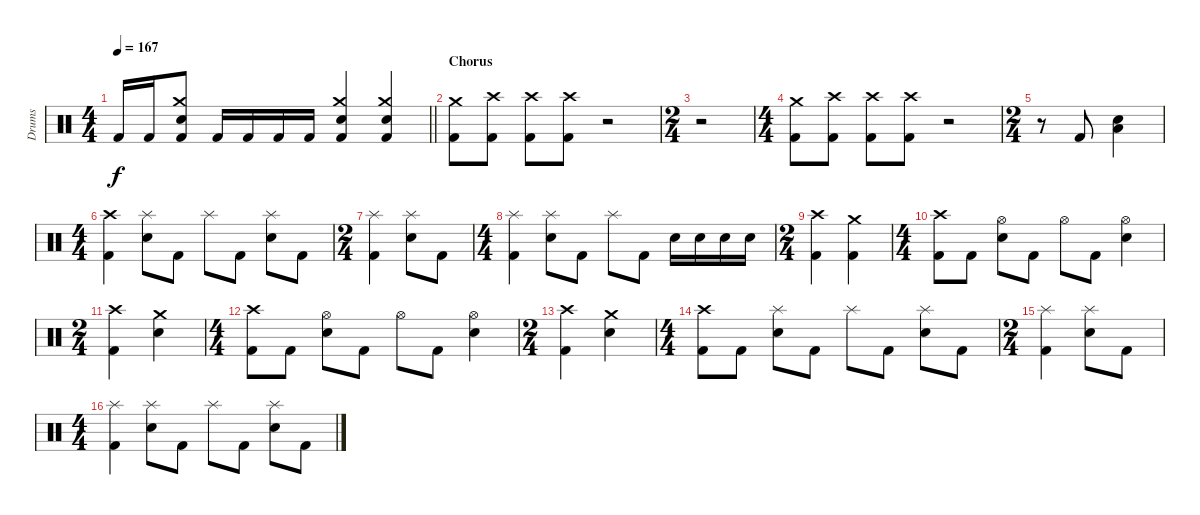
\track ("Drums" "Drums") {instrument percussion}
\staff {score}
\articulation defaults
\ts (4 4)
\tempo 167
\clef neutral
\barLineRight lightlight
\ks c "Kick (hit) 2".16{dy f} "Kick (hit) 2".16
("Crash medium (hit)" "Snare (hit) 2" "Kick (hit) 2").8 "Kick (hit) 2".16 "Kick (hit) 2".16 "Kick (hit) 2".16 "Kick (hit) 2".16 ("Crash medium (hit)" "Snare (hit) 2" "Kick (hit) 2").4 ("Crash medium (hit)" "Snare (hit) 2" "Kick (hit) 2").4 |
\section ("" "Chorus")
("Crash medium (hit)" "Kick (hit) 2").8 ("Crash high (hit)" "Kick (hit) 2").8 ("Crash high (hit)" "Kick (hit) 2").8 ("Crash high (hit)" "Kick (hit) 2").8 r.2 |
\ts (2 4)
r.2 |
\ts (4 4)
("Crash medium (hit)" "Kick (hit) 2").8 ("Crash high (hit)" "Kick (hit) 2").8 ("Crash high (hit)" "Kick (hit) 2").8 ("Crash high (hit)" "Kick (hit) 2").8 r.2 |
\ts (2 4)
r.8 "Kick (hit) 2".8 ("Snare (hit) 2" "Low Tom (hit)").4 |
\ts (4 4)
("Crash high (hit)" "Kick (hit) 2").4 ("Splash (hit)" "Snare (hit) 2").8 "Kick (hit) 2".8 "Splash (hit)".8 "Kick (hit) 2".8 ("Splash (hit)" "Snare (hit) 2").8 "Kick (hit) 2".8 |
\ts (2 4)
("Splash (hit)" "Kick (hit) 2").4 ("Splash (hit)" "Snare (hit) 2").8 "Kick (hit) 2".8 |
\ts (4 4)
("Splash (hit)" "Kick (hit) 2").4 ("Splash (hit)" "Snare (hit) 2").8 "Kick (hit) 2".8 "Splash (hit)".8 "Kick (hit) 2".8 "Snare (hit) 2".16 "Snare (hit) 2".16 "Snare (hit) 2".16 "Snare (hit) 2".16 |
\ts (2 4)
("Crash high (hit)" "Kick (hit) 2").4 ("Crash medium (hit)" "Kick (hit) 2").4 |
\ts (4 4)
("Crash high (hit)" "Kick (hit) 2").8 "Kick (hit) 2".8 ("Hi-Hat (open)" "Snare (hit) 2").8 "Kick (hit) 2".8 "Hi-Hat (open)".8 "Kick (hit) 2".8 ("Hi-Hat (open)" "Snare (hit) 2").4 |
\ts (2 4)
("Crash high (hit)" "Kick (hit) 2").4 ("Crash medium (hit)" "Snare (hit) 2").4 |
\ts (4 4)
("Crash high (hit)" "Kick (hit) 2").8 "Kick (hit) 2".8 ("Hi-Hat (open)" "Snare (hit) 2").8 "Kick (hit) 2".8 "Hi-Hat (open)".8 "Kick (hit) 2".8 ("Hi-Hat (open)" "Snare (hit) 2").4 |
\ts (2 4)
("Crash high (hit)" "Kick (hit) 2").4 ("Crash medium (hit)" "Snare (hit) 2").4 |
\ts (4 4)
("Crash high (hit)" "Kick (hit) 2").8 "Kick (hit) 2".8 ("Splash (hit)" "Snare (hit) 2").8 "Kick (hit) 2".8 "Splash (hit)".8 "Kick (hit) 2".8 ("Splash (hit)" "Snare (hit) 2").8 "Kick (hit) 2".8 |
\ts (2 4)
("Splash (hit)" "Kick (hit) 2").4 ("Splash (hit)" "Snare (hit) 2").8 "Kick (hit) 2".8 |
\ts (4 4)
("Splash (hit)" "Kick (hit) 2").4 ("Splash (hit)" "Snare (hit) 2").8 "Kick (hit) 2".8 "Splash (hit)".8 "Kick (hit) 2".8 ("Splash (hit)" "Snare (hit) 2").8 "Kick (hit) 2".8
